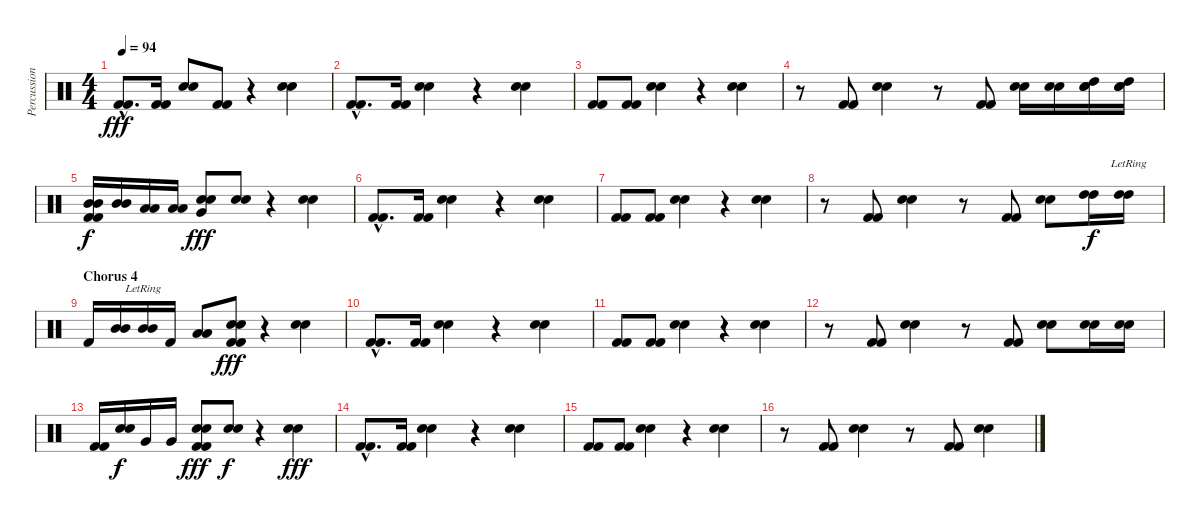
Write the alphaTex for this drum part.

\track ("Percussion" "Percussion") {instrument percussion}
\staff {score}
\articulation defaults
\ts (4 4)
\tempo 94
\clef neutral
\ks c
("Kick (hit) 2"{hac} "Kick (hit) 2"{hac}).8{d dy fff volume 16} ("Kick (hit) 2" "Kick (hit) 2").16 ("Snare (hit) 2" "Snare (hit) 2").8 ("Kick (hit) 2" "Kick (hit) 2").8 r.4 ("Snare (hit) 2" "Snare (hit) 2").4 |
("Kick (hit) 2"{hac} "Kick (hit) 2"{hac}).8{d volume 16} ("Kick (hit) 2" "Kick (hit) 2").16 ("Snare (hit) 2" "Snare (hit) 2").4 r.4 ("Snare (hit) 2" "Snare (hit) 2").4 |
("Kick (hit) 2" "Kick (hit) 2").8{volume 16} ("Kick (hit) 2" "Kick (hit) 2").8 ("Snare (hit) 2" "Snare (hit) 2").4 r.4 ("Snare (hit) 2" "Snare (hit) 2").4 |
r.8{volume 16} ("Kick (hit) 2" "Kick (hit) 2").8 ("Snare (hit) 2" "Snare (hit) 2").4 r.8 ("Kick (hit) 2" "Kick (hit) 2").8 ("Snare (hit) 2" "Snare (hit) 2").16 ("Snare (hit) 2" "Snare (hit) 2").16 ("Snare (hit) 2" "Snare (hit) 2" "High Tom (hit)").16 ("Snare (hit) 2" "Snare (hit) 2" "High Tom (hit)").16 |
("Mid Tom (hit)" "Mid Tom (hit)" "Kick (hit) 2" "Kick (hit) 2").16{dy f volume 16} ("Mid Tom (hit)" "Mid Tom (hit)").16 ("Low Tom (hit)" "Low Tom (hit)").16 ("Low Tom (hit)" "Low Tom (hit)").16 ("Snare (hit) 2" "Snare (hit) 2" "Very Low Tom (hit)").8{dy fff} ("Snare (hit) 2" "Snare (hit) 2").8 r.4 ("Snare (hit) 2" "Snare (hit) 2").4 |
("Kick (hit) 2"{hac} "Kick (hit) 2"{hac}).8{d volume 16} ("Kick (hit) 2" "Kick (hit) 2").16 ("Snare (hit) 2" "Snare (hit) 2").4 r.4 ("Snare (hit) 2" "Snare (hit) 2").4 |
("Kick (hit) 2" "Kick (hit) 2").8{volume 16} ("Kick (hit) 2" "Kick (hit) 2").8 ("Snare (hit) 2" "Snare (hit) 2").4 r.4 ("Snare (hit) 2" "Snare (hit) 2").4 |
r.8{volume 16} ("Kick (hit) 2" "Kick (hit) 2").8 ("Snare (hit) 2" "Snare (hit) 2").4 r.8 ("Kick (hit) 2" "Kick (hit) 2").8 ("Snare (hit) 2" "Snare (hit) 2").8 ("High Tom (hit)" "High Tom (hit)").16{dy f} ("High Tom (hit)"{lr} "High Tom (hit)"{lr}).16 |
\section ("" "Chorus 4")
"Kick (hit) 2".16{volume 16} ("Mid Tom (hit)" "Mid Tom (hit)").16 ("Mid Tom (hit)"{lr} "Mid Tom (hit)"{lr}).16 "Kick (hit) 2".16 ("Low Tom (hit)" "Low Tom (hit)").8 ("Snare (hit) 2" "Snare (hit) 2" "Kick (hit) 2" "Kick (hit) 2").8{dy fff} r.4 ("Snare (hit) 2" "Snare (hit) 2").4 |
("Kick (hit) 2"{hac} "Kick (hit) 2"{hac}).8{d volume 16} ("Kick (hit) 2" "Kick (hit) 2").16 ("Snare (hit) 2" "Snare (hit) 2").4 r.4 ("Snare (hit) 2" "Snare (hit) 2").4 |
("Kick (hit) 2" "Kick (hit) 2").8{volume 16} ("Kick (hit) 2" "Kick (hit) 2").8 ("Snare (hit) 2" "Snare (hit) 2").4 r.4 ("Snare (hit) 2" "Snare (hit) 2").4 |
r.8{volume 16} ("Kick (hit) 2" "Kick (hit) 2").8 ("Snare (hit) 2" "Snare (hit) 2").4 r.8 ("Kick (hit) 2" "Kick (hit) 2").8 ("Snare (hit) 2" "Snare (hit) 2").8 ("Snare (hit) 2" "Snare (hit) 2").16 ("Snare (hit) 2" "Snare (hit) 2").16 |
("Kick (hit) 2" "Kick (hit) 2").16{volume 16} ("Snare (hit) 2" "Snare (hit) 2").16{dy f} "Very Low Tom (hit)".16 "Very Low Tom (hit)".16 ("Snare (hit) 2" "Snare (hit) 2" "Kick (hit) 2" "Kick (hit) 2").8{dy fff} ("Snare (hit) 2" "Snare (hit) 2").8{dy f} r.4 ("Snare (hit) 2" "Snare (hit) 2").4{dy fff} |
("Kick (hit) 2"{hac} "Kick (hit) 2"{hac}).8{d volume 16} ("Kick (hit) 2" "Kick (hit) 2").16 ("Snare (hit) 2" "Snare (hit) 2").4 r.4 ("Snare (hit) 2" "Snare (hit) 2").4 |
("Kick (hit) 2" "Kick (hit) 2").8{volume 16} ("Kick (hit) 2" "Kick (hit) 2").8 ("Snare (hit) 2" "Snare (hit) 2").4 r.4 ("Snare (hit) 2" "Snare (hit) 2").4 |
r.8{volume 16} ("Kick (hit) 2" "Kick (hit) 2").8 ("Snare (hit) 2" "Snare (hit) 2").4 r.8 ("Kick (hit) 2" "Kick (hit) 2").8 ("Snare (hit) 2" "Snare (hit) 2").4
